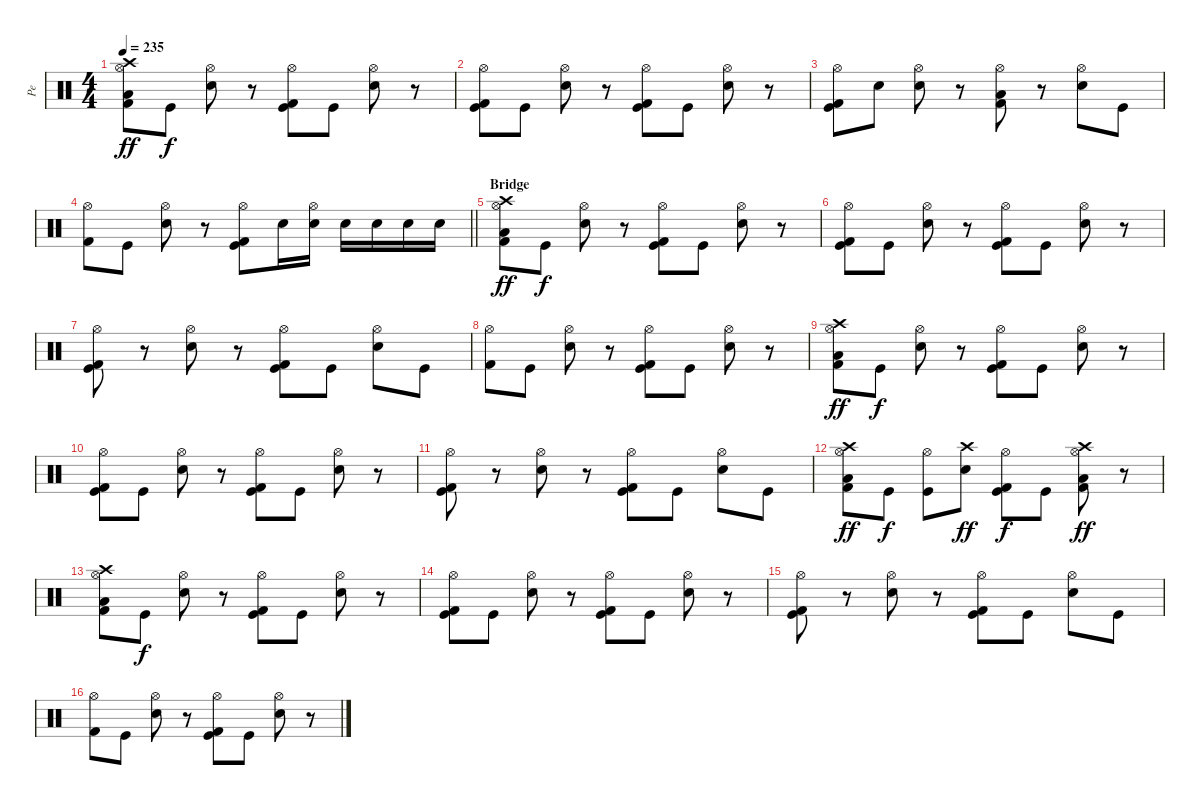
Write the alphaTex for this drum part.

\track ("Pe" "Pe") {instrument percussion}
\staff {score}
\articulation defaults
\ts (4 4)
\tempo 235
\clef neutral
\ks c
("Low Tom (hit)" "Hi-Hat (open)" "Kick (hit) 2" "Crash high (hit)").8{dy ff} "Kick (hit)".8{dy f} ("Electric Snare (hit)" "Hi-Hat (open)").8 r.8 ("Kick (hit)" "Hi-Hat (open)" "Kick (hit) 2").8 "Kick (hit)".8 ("Electric Snare (hit)" "Hi-Hat (open)").8 r.8 |
("Kick (hit)" "Hi-Hat (open)" "Kick (hit) 2").8 "Kick (hit)".8 ("Electric Snare (hit)" "Hi-Hat (open)").8 r.8 ("Kick (hit)" "Hi-Hat (open)" "Kick (hit) 2").8 "Kick (hit)".8 ("Electric Snare (hit)" "Hi-Hat (open)").8 r.8 |
("Kick (hit)" "Hi-Hat (open)" "Kick (hit) 2").8 "Electric Snare (hit)".8 ("Electric Snare (hit)" "Hi-Hat (open)").8 r.8 ("Low Floor Tom (hit)" "Hi-Hat (open)" "Kick (hit) 2").8 r.8 ("Electric Snare (hit)" "Hi-Hat (open)").8 "Kick (hit)".8 |
\barLineRight lightlight
("Hi-Hat (open)" "Kick (hit) 2").8 "Kick (hit)".8 ("Electric Snare (hit)" "Hi-Hat (open)").8 r.8 ("Kick (hit)" "Hi-Hat (open)" "Kick (hit) 2").8 "Electric Snare (hit)".16 ("Electric Snare (hit)" "Hi-Hat (open)").16 "Electric Snare (hit)".16 "Electric Snare (hit)".16 "Electric Snare (hit)".16 "Electric Snare (hit)".16 |
\section ("" "Bridge")
("Low Tom (hit)" "Hi-Hat (open)" "Kick (hit) 2" "Crash high (hit)").8{dy ff} "Kick (hit)".8{dy f} ("Electric Snare (hit)" "Hi-Hat (open)").8 r.8 ("Kick (hit)" "Hi-Hat (open)" "Kick (hit) 2").8 "Kick (hit)".8 ("Electric Snare (hit)" "Hi-Hat (open)").8 r.8 |
("Kick (hit)" "Hi-Hat (open)" "Kick (hit) 2").8 "Kick (hit)".8 ("Electric Snare (hit)" "Hi-Hat (open)").8 r.8 ("Kick (hit)" "Hi-Hat (open)" "Kick (hit) 2").8 "Kick (hit)".8 ("Electric Snare (hit)" "Hi-Hat (open)").8 r.8 |
("Kick (hit)" "Hi-Hat (open)" "Kick (hit) 2").8 r.8 ("Electric Snare (hit)" "Hi-Hat (open)").8 r.8 ("Kick (hit)" "Hi-Hat (open)" "Kick (hit) 2").8 "Kick (hit)".8 ("Electric Snare (hit)" "Hi-Hat (open)").8 "Kick (hit)".8 |
("Hi-Hat (open)" "Kick (hit) 2").8 "Kick (hit)".8 ("Electric Snare (hit)" "Hi-Hat (open)").8 r.8 ("Kick (hit)" "Hi-Hat (open)" "Kick (hit) 2").8 "Kick (hit)".8 ("Electric Snare (hit)" "Hi-Hat (open)").8 r.8 |
("Low Tom (hit)" "Hi-Hat (open)" "Kick (hit) 2" "Crash high (hit)").8{dy ff} "Kick (hit)".8{dy f} ("Electric Snare (hit)" "Hi-Hat (open)").8 r.8 ("Kick (hit)" "Hi-Hat (open)" "Kick (hit) 2").8 "Kick (hit)".8 ("Electric Snare (hit)" "Hi-Hat (open)").8 r.8 |
("Kick (hit)" "Hi-Hat (open)" "Kick (hit) 2").8 "Kick (hit)".8 ("Electric Snare (hit)" "Hi-Hat (open)").8 r.8 ("Kick (hit)" "Hi-Hat (open)" "Kick (hit) 2").8 "Kick (hit)".8 ("Electric Snare (hit)" "Hi-Hat (open)").8 r.8 |
("Kick (hit)" "Hi-Hat (open)" "Kick (hit) 2").8 r.8 ("Electric Snare (hit)" "Hi-Hat (open)").8 r.8 ("Kick (hit)" "Hi-Hat (open)" "Kick (hit) 2").8 "Kick (hit)".8 ("Electric Snare (hit)" "Hi-Hat (open)").8 "Kick (hit)".8 |
("Low Tom (hit)" "Hi-Hat (open)" "Kick (hit) 2" "Crash high (hit)").8{dy ff} "Kick (hit)".8{dy f} ("Kick (hit)" "Hi-Hat (open)").8 ("Crash high (hit)" "Electric Snare (hit)").8{dy ff} ("Kick (hit)" "Hi-Hat (open)" "Kick (hit) 2").8{dy f} "Kick (hit)".8 ("Low Tom (hit)" "Hi-Hat (open)" "Kick (hit) 2" "Crash high (hit)").8{dy ff} r.8 |
("Low Tom (hit)" "Hi-Hat (open)" "Kick (hit) 2" "Crash high (hit)").8 "Kick (hit)".8{dy f} ("Electric Snare (hit)" "Hi-Hat (open)").8 r.8 ("Kick (hit)" "Hi-Hat (open)" "Kick (hit) 2").8 "Kick (hit)".8 ("Electric Snare (hit)" "Hi-Hat (open)").8 r.8 |
("Kick (hit)" "Hi-Hat (open)" "Kick (hit) 2").8 "Kick (hit)".8 ("Electric Snare (hit)" "Hi-Hat (open)").8 r.8 ("Kick (hit)" "Hi-Hat (open)" "Kick (hit) 2").8 "Kick (hit)".8 ("Electric Snare (hit)" "Hi-Hat (open)").8 r.8 |
("Kick (hit)" "Hi-Hat (open)" "Kick (hit) 2").8 r.8 ("Electric Snare (hit)" "Hi-Hat (open)").8 r.8 ("Kick (hit)" "Hi-Hat (open)" "Kick (hit) 2").8 "Kick (hit)".8 ("Electric Snare (hit)" "Hi-Hat (open)").8 "Kick (hit)".8 |
("Hi-Hat (open)" "Kick (hit) 2").8 "Kick (hit)".8 ("Electric Snare (hit)" "Hi-Hat (open)").8 r.8 ("Kick (hit)" "Hi-Hat (open)" "Kick (hit) 2").8 "Kick (hit)".8 ("Electric Snare (hit)" "Hi-Hat (open)").8 r.8
